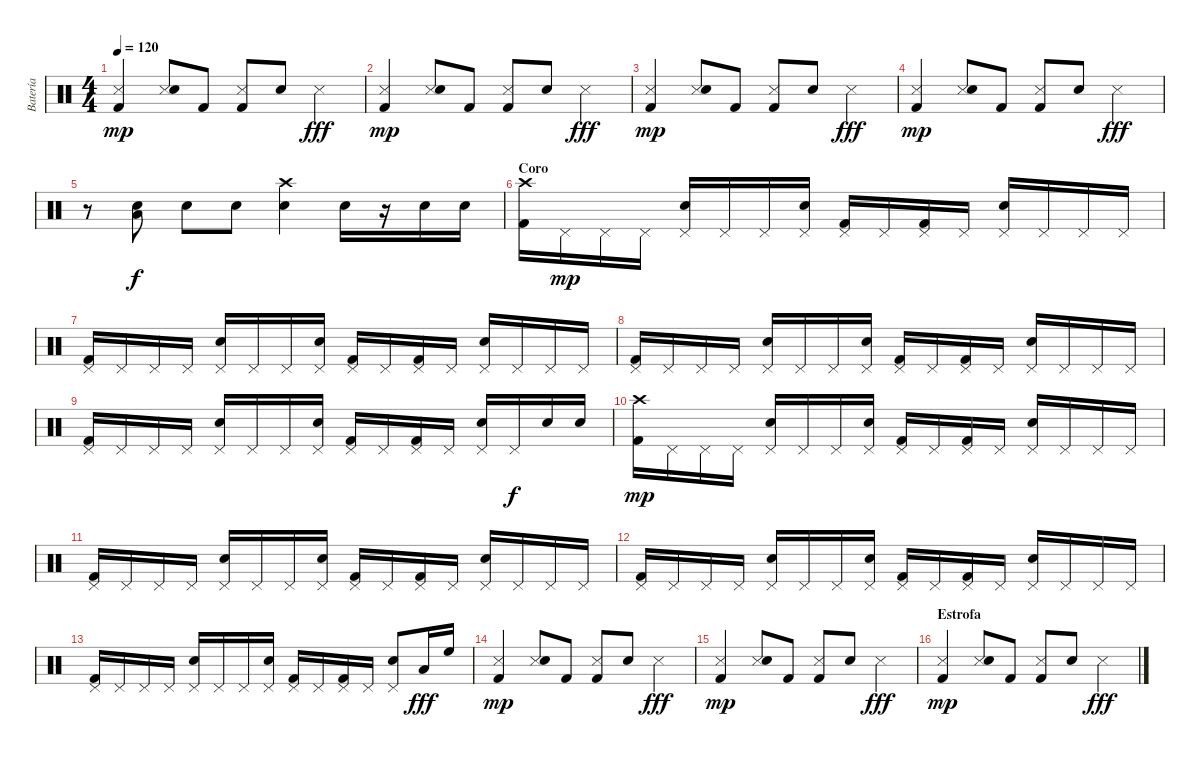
\track ("Batería" "Batería") {instrument percussion}
\staff {score}
\articulation defaults
\ts (4 4)
\tempo 120
\clef neutral
\ks c
("Snare (side stick) 3" "Kick (hit) 2").4{dy mp} ("Snare (side stick) 3" "Snare (hit) 2").8 "Kick (hit) 2".8 ("Snare (side stick) 3" "Kick (hit) 2").8 "Snare (hit) 2".8 "Snare (side stick) 3".4{dy fff} |
("Snare (side stick) 3" "Kick (hit) 2").4{dy mp} ("Snare (side stick) 3" "Snare (hit) 2").8 "Kick (hit) 2".8 ("Snare (side stick) 3" "Kick (hit) 2").8 "Snare (hit) 2".8 "Snare (side stick) 3".4{dy fff} |
("Snare (side stick) 3" "Kick (hit) 2").4{dy mp} ("Snare (side stick) 3" "Snare (hit) 2").8 "Kick (hit) 2".8 ("Snare (side stick) 3" "Kick (hit) 2").8 "Snare (hit) 2".8 "Snare (side stick) 3".4{dy fff} |
("Snare (side stick) 3" "Kick (hit) 2").4{dy mp} ("Snare (side stick) 3" "Snare (hit) 2").8 "Kick (hit) 2".8 ("Snare (side stick) 3" "Kick (hit) 2").8 "Snare (hit) 2".8 "Snare (side stick) 3".4{dy fff} |
r.8 ("Snare (hit) 2" "Low Tom (hit)").8{dy f} "Snare (hit) 2".8 "Snare (hit) 2".8 ("Crash high (hit)" "Snare (hit) 2").4 "Snare (hit) 2".16 r.16 "Snare (hit) 2".16 "Snare (hit) 2".16 |
\section ("" "Coro")
("Crash high (hit)" "Kick (hit) 2").16 "Pedal Hi-Hat (hit)".16{dy mp} "Pedal Hi-Hat (hit)".16 "Pedal Hi-Hat (hit)".16 ("Pedal Hi-Hat (hit)" "Snare (hit) 2").16 "Pedal Hi-Hat (hit)".16 "Pedal Hi-Hat (hit)".16 ("Pedal Hi-Hat (hit)" "Snare (hit) 2").16 ("Pedal Hi-Hat (hit)" "Kick (hit) 2").16 "Pedal Hi-Hat (hit)".16 ("Pedal Hi-Hat (hit)" "Kick (hit) 2").16 "Pedal Hi-Hat (hit)".16 ("Pedal Hi-Hat (hit)" "Snare (hit) 2").16 "Pedal Hi-Hat (hit)".16 "Pedal Hi-Hat (hit)".16 "Pedal Hi-Hat (hit)".16 |
("Pedal Hi-Hat (hit)" "Kick (hit) 2").16 "Pedal Hi-Hat (hit)".16 "Pedal Hi-Hat (hit)".16 "Pedal Hi-Hat (hit)".16 ("Pedal Hi-Hat (hit)" "Snare (hit) 2").16 "Pedal Hi-Hat (hit)".16 "Pedal Hi-Hat (hit)".16 ("Pedal Hi-Hat (hit)" "Snare (hit) 2").16 ("Pedal Hi-Hat (hit)" "Kick (hit) 2").16 "Pedal Hi-Hat (hit)".16 ("Pedal Hi-Hat (hit)" "Kick (hit) 2").16 "Pedal Hi-Hat (hit)".16 ("Pedal Hi-Hat (hit)" "Snare (hit) 2").16 "Pedal Hi-Hat (hit)".16 "Pedal Hi-Hat (hit)".16 "Pedal Hi-Hat (hit)".16 |
("Pedal Hi-Hat (hit)" "Kick (hit) 2").16 "Pedal Hi-Hat (hit)".16 "Pedal Hi-Hat (hit)".16 "Pedal Hi-Hat (hit)".16 ("Pedal Hi-Hat (hit)" "Snare (hit) 2").16 "Pedal Hi-Hat (hit)".16 "Pedal Hi-Hat (hit)".16 ("Pedal Hi-Hat (hit)" "Snare (hit) 2").16 ("Pedal Hi-Hat (hit)" "Kick (hit) 2").16 "Pedal Hi-Hat (hit)".16 ("Pedal Hi-Hat (hit)" "Kick (hit) 2").16 "Pedal Hi-Hat (hit)".16 ("Pedal Hi-Hat (hit)" "Snare (hit) 2").16 "Pedal Hi-Hat (hit)".16 "Pedal Hi-Hat (hit)".16 "Pedal Hi-Hat (hit)".16 |
("Pedal Hi-Hat (hit)" "Kick (hit) 2").16 "Pedal Hi-Hat (hit)".16 "Pedal Hi-Hat (hit)".16 "Pedal Hi-Hat (hit)".16 ("Pedal Hi-Hat (hit)" "Snare (hit) 2").16 "Pedal Hi-Hat (hit)".16 "Pedal Hi-Hat (hit)".16 ("Pedal Hi-Hat (hit)" "Snare (hit) 2").16 ("Pedal Hi-Hat (hit)" "Kick (hit) 2").16 "Pedal Hi-Hat (hit)".16 ("Pedal Hi-Hat (hit)" "Kick (hit) 2").16 "Pedal Hi-Hat (hit)".16 ("Pedal Hi-Hat (hit)" "Snare (hit) 2").16 "Pedal Hi-Hat (hit)".16{dy f} "Snare (hit) 2".16 "Snare (hit) 2".16 |
("Crash high (hit)" "Kick (hit) 2").16{dy mp} "Pedal Hi-Hat (hit)".16 "Pedal Hi-Hat (hit)".16 "Pedal Hi-Hat (hit)".16 ("Pedal Hi-Hat (hit)" "Snare (hit) 2").16 "Pedal Hi-Hat (hit)".16 "Pedal Hi-Hat (hit)".16 ("Pedal Hi-Hat (hit)" "Snare (hit) 2").16 ("Pedal Hi-Hat (hit)" "Kick (hit) 2").16 "Pedal Hi-Hat (hit)".16 ("Pedal Hi-Hat (hit)" "Kick (hit) 2").16 "Pedal Hi-Hat (hit)".16 ("Pedal Hi-Hat (hit)" "Snare (hit) 2").16 "Pedal Hi-Hat (hit)".16 "Pedal Hi-Hat (hit)".16 "Pedal Hi-Hat (hit)".16 |
("Pedal Hi-Hat (hit)" "Kick (hit) 2").16 "Pedal Hi-Hat (hit)".16 "Pedal Hi-Hat (hit)".16 "Pedal Hi-Hat (hit)".16 ("Pedal Hi-Hat (hit)" "Snare (hit) 2").16 "Pedal Hi-Hat (hit)".16 "Pedal Hi-Hat (hit)".16 ("Pedal Hi-Hat (hit)" "Snare (hit) 2").16 ("Pedal Hi-Hat (hit)" "Kick (hit) 2").16 "Pedal Hi-Hat (hit)".16 ("Pedal Hi-Hat (hit)" "Kick (hit) 2").16 "Pedal Hi-Hat (hit)".16 ("Pedal Hi-Hat (hit)" "Snare (hit) 2").16 "Pedal Hi-Hat (hit)".16 "Pedal Hi-Hat (hit)".16 "Pedal Hi-Hat (hit)".16 |
("Pedal Hi-Hat (hit)" "Kick (hit) 2").16 "Pedal Hi-Hat (hit)".16 "Pedal Hi-Hat (hit)".16 "Pedal Hi-Hat (hit)".16 ("Pedal Hi-Hat (hit)" "Snare (hit) 2").16 "Pedal Hi-Hat (hit)".16 "Pedal Hi-Hat (hit)".16 ("Pedal Hi-Hat (hit)" "Snare (hit) 2").16 ("Pedal Hi-Hat (hit)" "Kick (hit) 2").16 "Pedal Hi-Hat (hit)".16 ("Pedal Hi-Hat (hit)" "Kick (hit) 2").16 "Pedal Hi-Hat (hit)".16 ("Pedal Hi-Hat (hit)" "Snare (hit) 2").16 "Pedal Hi-Hat (hit)".16 "Pedal Hi-Hat (hit)".16 "Pedal Hi-Hat (hit)".16 |
("Pedal Hi-Hat (hit)" "Kick (hit) 2").16 "Pedal Hi-Hat (hit)".16 "Pedal Hi-Hat (hit)".16 "Pedal Hi-Hat (hit)".16 ("Pedal Hi-Hat (hit)" "Snare (hit) 2").16 "Pedal Hi-Hat (hit)".16 "Pedal Hi-Hat (hit)".16 ("Pedal Hi-Hat (hit)" "Snare (hit) 2").16 ("Pedal Hi-Hat (hit)" "Kick (hit) 2").16 "Pedal Hi-Hat (hit)".16 ("Pedal Hi-Hat (hit)" "Kick (hit) 2").16 "Pedal Hi-Hat (hit)".16 ("Pedal Hi-Hat (hit)" "Snare (hit) 2").8 "Low Tom (hit)".16{dy fff} "High Floor Tom (hit)".16 |
("Snare (side stick) 3" "Kick (hit) 2").4{dy mp} ("Snare (side stick) 3" "Snare (hit) 2").8 "Kick (hit) 2".8 ("Snare (side stick) 3" "Kick (hit) 2").8 "Snare (hit) 2".8 "Snare (side stick) 3".4{dy fff} |
("Snare (side stick) 3" "Kick (hit) 2").4{dy mp} ("Snare (side stick) 3" "Snare (hit) 2").8 "Kick (hit) 2".8 ("Snare (side stick) 3" "Kick (hit) 2").8 "Snare (hit) 2".8 "Snare (side stick) 3".4{dy fff} |
\section ("" "Estrofa")
("Snare (side stick) 3" "Kick (hit) 2").4{dy mp} ("Snare (side stick) 3" "Snare (hit) 2").8 "Kick (hit) 2".8 ("Snare (side stick) 3" "Kick (hit) 2").8 "Snare (hit) 2".8 "Snare (side stick) 3".4{dy fff}
